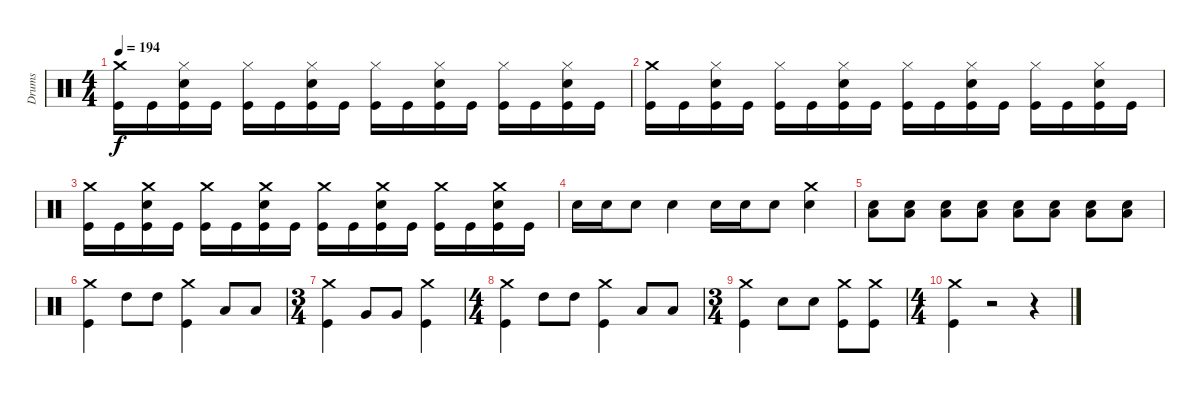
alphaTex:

\track ("Drums" "Drums") {instrument percussion}
\staff {score}
\articulation defaults
\ts (4 4)
\tempo 194
\clef neutral
\ks c
("Crash medium (hit)" "Kick (hit)").16{dy f} "Kick (hit)".16 ("Hi-Hat (closed)" "Snare (hit) 2" "Kick (hit)").16 "Kick (hit)".16 ("Hi-Hat (closed)" "Kick (hit)").16 "Kick (hit)".16 ("Hi-Hat (closed)" "Snare (hit) 2" "Kick (hit)").16 "Kick (hit)".16 ("Hi-Hat (closed)" "Kick (hit)").16 "Kick (hit)".16 ("Hi-Hat (closed)" "Snare (hit) 2" "Kick (hit)").16 "Kick (hit)".16 ("Hi-Hat (closed)" "Kick (hit)").16 "Kick (hit)".16 ("Hi-Hat (closed)" "Snare (hit) 2" "Kick (hit)").16 "Kick (hit)".16 |
("Crash medium (hit)" "Kick (hit)").16 "Kick (hit)".16 ("Hi-Hat (closed)" "Snare (hit) 2" "Kick (hit)").16 "Kick (hit)".16 ("Hi-Hat (closed)" "Kick (hit)").16 "Kick (hit)".16 ("Hi-Hat (closed)" "Snare (hit) 2" "Kick (hit)").16 "Kick (hit)".16 ("Hi-Hat (closed)" "Kick (hit)").16 "Kick (hit)".16 ("Hi-Hat (closed)" "Snare (hit) 2" "Kick (hit)").16 "Kick (hit)".16 ("Hi-Hat (closed)" "Kick (hit)").16 "Kick (hit)".16 ("Hi-Hat (closed)" "Snare (hit) 2" "Kick (hit)").16 "Kick (hit)".16 |
("Crash medium (hit)" "Kick (hit)").16 "Kick (hit)".16 ("Crash medium (hit)" "Snare (hit) 2" "Kick (hit)").16 "Kick (hit)".16 ("Crash medium (hit)" "Kick (hit)").16 "Kick (hit)".16 ("Crash medium (hit)" "Snare (hit) 2" "Kick (hit)").16 "Kick (hit)".16 ("Crash medium (hit)" "Kick (hit)").16 "Kick (hit)".16 ("Crash medium (hit)" "Snare (hit) 2" "Kick (hit)").16 "Kick (hit)".16 ("Crash medium (hit)" "Kick (hit)").16 "Kick (hit)".16 ("Crash medium (hit)" "Snare (hit) 2" "Kick (hit)").16 "Kick (hit)".16 |
"Snare (hit) 2".16 "Snare (hit) 2".16 "Snare (hit) 2".8 "Snare (hit) 2".4 "Snare (hit) 2".16 "Snare (hit) 2".16 "Snare (hit) 2".8 ("Crash medium (hit)" "Snare (hit) 2").4 |
("Low Floor Tom (hit)" "Snare (hit) 2").8 ("Low Floor Tom (hit)" "Snare (hit) 2").8 ("Low Floor Tom (hit)" "Snare (hit) 2").8 ("Low Floor Tom (hit)" "Snare (hit) 2").8 ("Low Floor Tom (hit)" "Snare (hit) 2").8 ("Low Floor Tom (hit)" "Snare (hit) 2").8 ("Low Floor Tom (hit)" "Snare (hit) 2").8 ("Low Floor Tom (hit)" "Snare (hit) 2").8 |
("Crash medium (hit)" "Kick (hit)").4 "High Tom (hit)".8 "High Tom (hit)".8 ("Crash medium (hit)" "Kick (hit)").4 "Low Tom (hit)".8 "Low Tom (hit)".8 |
\ts (3 4)
("Crash medium (hit)" "Kick (hit)").4 "Very Low Tom (hit)".8 "Very Low Tom (hit)".8 ("Crash medium (hit)" "Kick (hit)").4 |
\ts (4 4)
("Crash medium (hit)" "Kick (hit)").4 "High Tom (hit)".8 "High Tom (hit)".8 ("Crash medium (hit)" "Kick (hit)").4 "Low Tom (hit)".8 "Low Tom (hit)".8 |
\ts (3 4)
("Crash medium (hit)" "Kick (hit)").4 "Snare (hit) 2".8 "Snare (hit) 2".8 ("Crash medium (hit)" "Kick (hit)").8 ("Crash medium (hit)" "Kick (hit)").8 |
\ts (4 4)
("Crash medium (hit)" "Kick (hit)").4 r.2 r.4
